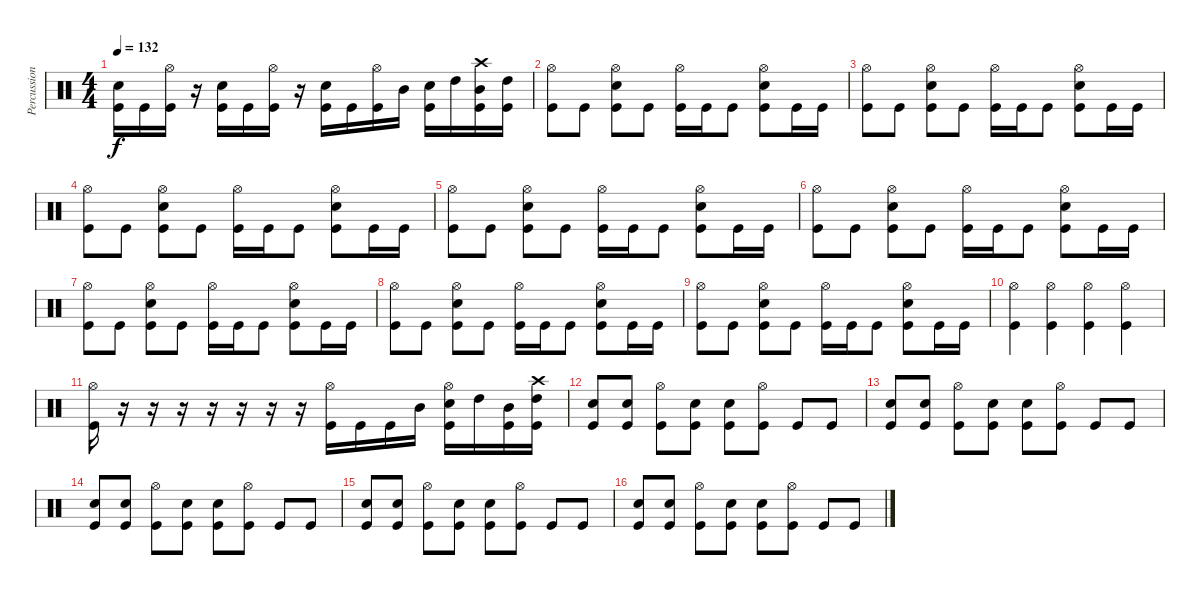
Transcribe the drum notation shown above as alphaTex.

\track ("Percussion" "Percussion") {instrument percussion}
\staff {score}
\articulation defaults
\ts (4 4)
\tempo 132
\clef neutral
\ks c
("Electric Snare (hit)" "Kick (hit)").16{dy f} "Kick (hit)".16 ("Hi-Hat (open)" "Kick (hit)").16 r.16 ("Electric Snare (hit)" "Kick (hit)").16 "Kick (hit)".16 ("Hi-Hat (open)" "Kick (hit)").16 r.16 ("Electric Snare (hit)" "Kick (hit)").16 "Kick (hit)".16 ("Hi-Hat (open)" "Kick (hit)").16 "Mid Tom (hit)".16 ("Electric Snare (hit)" "Kick (hit)").16 "High Tom (hit)".16 ("Crash high (hit)" "Mid Tom (hit)" "Kick (hit)").16 ("High Tom (hit)" "Kick (hit)").16 |
("Hi-Hat (open)" "Kick (hit)").8 "Kick (hit)".8 ("Hi-Hat (open)" "Electric Snare (hit)" "Kick (hit)").8 "Kick (hit)".8 ("Hi-Hat (open)" "Kick (hit)").16 "Kick (hit)".16 "Kick (hit)".8 ("Hi-Hat (open)" "Electric Snare (hit)" "Kick (hit)").8 "Kick (hit)".16 "Kick (hit)".16 |
("Hi-Hat (open)" "Kick (hit)").8 "Kick (hit)".8 ("Hi-Hat (open)" "Electric Snare (hit)" "Kick (hit)").8 "Kick (hit)".8 ("Hi-Hat (open)" "Kick (hit)").16 "Kick (hit)".16 "Kick (hit)".8 ("Hi-Hat (open)" "Electric Snare (hit)" "Kick (hit)").8 "Kick (hit)".16 "Kick (hit)".16 |
("Hi-Hat (open)" "Kick (hit)").8 "Kick (hit)".8 ("Hi-Hat (open)" "Electric Snare (hit)" "Kick (hit)").8 "Kick (hit)".8 ("Hi-Hat (open)" "Kick (hit)").16 "Kick (hit)".16 "Kick (hit)".8 ("Hi-Hat (open)" "Electric Snare (hit)" "Kick (hit)").8 "Kick (hit)".16 "Kick (hit)".16 |
("Hi-Hat (open)" "Kick (hit)").8 "Kick (hit)".8 ("Hi-Hat (open)" "Electric Snare (hit)" "Kick (hit)").8 "Kick (hit)".8 ("Hi-Hat (open)" "Kick (hit)").16 "Kick (hit)".16 "Kick (hit)".8 ("Hi-Hat (open)" "Electric Snare (hit)" "Kick (hit)").8 "Kick (hit)".16 "Kick (hit)".16 |
("Hi-Hat (open)" "Kick (hit)").8 "Kick (hit)".8 ("Hi-Hat (open)" "Electric Snare (hit)" "Kick (hit)").8 "Kick (hit)".8 ("Hi-Hat (open)" "Kick (hit)").16 "Kick (hit)".16 "Kick (hit)".8 ("Hi-Hat (open)" "Electric Snare (hit)" "Kick (hit)").8 "Kick (hit)".16 "Kick (hit)".16 |
("Hi-Hat (open)" "Kick (hit)").8 "Kick (hit)".8 ("Hi-Hat (open)" "Electric Snare (hit)" "Kick (hit)").8 "Kick (hit)".8 ("Hi-Hat (open)" "Kick (hit)").16 "Kick (hit)".16 "Kick (hit)".8 ("Hi-Hat (open)" "Electric Snare (hit)" "Kick (hit)").8 "Kick (hit)".16 "Kick (hit)".16 |
("Hi-Hat (open)" "Kick (hit)").8 "Kick (hit)".8 ("Hi-Hat (open)" "Electric Snare (hit)" "Kick (hit)").8 "Kick (hit)".8 ("Hi-Hat (open)" "Kick (hit)").16 "Kick (hit)".16 "Kick (hit)".8 ("Hi-Hat (open)" "Electric Snare (hit)" "Kick (hit)").8 "Kick (hit)".16 "Kick (hit)".16 |
("Hi-Hat (open)" "Kick (hit)").8 "Kick (hit)".8 ("Hi-Hat (open)" "Electric Snare (hit)" "Kick (hit)").8 "Kick (hit)".8 ("Hi-Hat (open)" "Kick (hit)").16 "Kick (hit)".16 "Kick (hit)".8 ("Hi-Hat (open)" "Electric Snare (hit)" "Kick (hit)").8 "Kick (hit)".16 "Kick (hit)".16 |
("Hi-Hat (open)" "Kick (hit)").4 ("Hi-Hat (open)" "Kick (hit)").4 ("Hi-Hat (open)" "Kick (hit)").4 ("Hi-Hat (open)" "Kick (hit)").4 |
("Hi-Hat (open)" "Kick (hit)").16 r.16 r.16 r.16 r.16 r.16 r.16 r.16 ("Hi-Hat (open)" "Kick (hit)").16 "Kick (hit)".16 "Kick (hit)".16 "Mid Tom (hit)".16 ("Hi-Hat (open)" "Electric Snare (hit)" "Kick (hit)").16 "High Tom (hit)".16 ("Mid Tom (hit)" "Kick (hit)").16 ("Crash high (hit)" "High Tom (hit)" "Kick (hit)").16 |
("Electric Snare (hit)" "Kick (hit)").8 ("Electric Snare (hit)" "Kick (hit)").8 ("Hi-Hat (open)" "Kick (hit)").8 ("Electric Snare (hit)" "Kick (hit)").8 ("Electric Snare (hit)" "Kick (hit)").8 ("Hi-Hat (open)" "Kick (hit)").8 "Kick (hit)".8 "Kick (hit)".8 |
("Electric Snare (hit)" "Kick (hit)").8 ("Electric Snare (hit)" "Kick (hit)").8 ("Hi-Hat (open)" "Kick (hit)").8 ("Electric Snare (hit)" "Kick (hit)").8 ("Electric Snare (hit)" "Kick (hit)").8 ("Hi-Hat (open)" "Kick (hit)").8 "Kick (hit)".8 "Kick (hit)".8 |
("Electric Snare (hit)" "Kick (hit)").8 ("Electric Snare (hit)" "Kick (hit)").8 ("Hi-Hat (open)" "Kick (hit)").8 ("Electric Snare (hit)" "Kick (hit)").8 ("Electric Snare (hit)" "Kick (hit)").8 ("Hi-Hat (open)" "Kick (hit)").8 "Kick (hit)".8 "Kick (hit)".8 |
("Electric Snare (hit)" "Kick (hit)").8 ("Electric Snare (hit)" "Kick (hit)").8 ("Hi-Hat (open)" "Kick (hit)").8 ("Electric Snare (hit)" "Kick (hit)").8 ("Electric Snare (hit)" "Kick (hit)").8 ("Hi-Hat (open)" "Kick (hit)").8 "Kick (hit)".8 "Kick (hit)".8 |
("Electric Snare (hit)" "Kick (hit)").8 ("Electric Snare (hit)" "Kick (hit)").8 ("Hi-Hat (open)" "Kick (hit)").8 ("Electric Snare (hit)" "Kick (hit)").8 ("Electric Snare (hit)" "Kick (hit)").8 ("Hi-Hat (open)" "Kick (hit)").8 "Kick (hit)".8 "Kick (hit)".8
